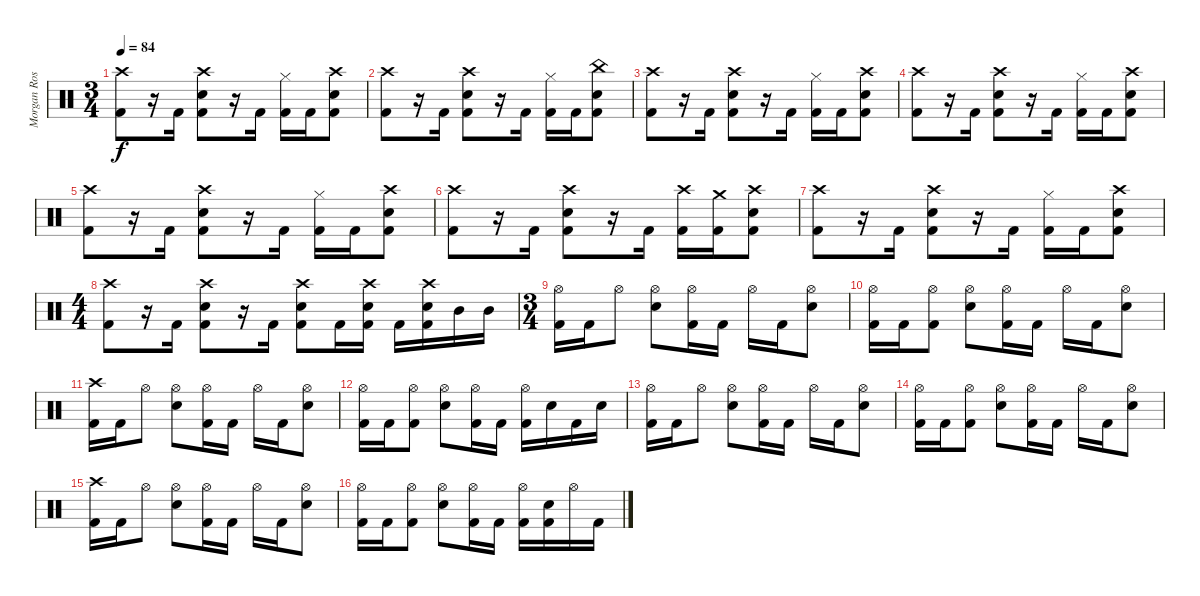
\track ("Morgan Rose - Drums" "Morgan Ros") {instrument percussion}
\staff {score}
\articulation defaults
\ts (3 4)
\tempo 84
\clef neutral
\ks c
("Crash high (hit)" "Kick (hit) 2").8{dy f} r.16 "Kick (hit) 2".16 ("Crash high (hit)" "Electric Snare (hit)" "Kick (hit) 2").8 r.16 "Kick (hit) 2".16 ("Hi-Hat (closed)" "Kick (hit) 2").16 "Kick (hit) 2".16 ("Crash high (hit)" "Electric Snare (hit)" "Kick (hit) 2").8 |
("Crash high (hit)" "Kick (hit) 2").8 r.16 "Kick (hit) 2".16 ("Crash high (hit)" "Electric Snare (hit)" "Kick (hit) 2").8 r.16 "Kick (hit) 2".16 ("Hi-Hat (closed)" "Kick (hit) 2").16 "Kick (hit) 2".16 ("China (hit)" "Electric Snare (hit)" "Kick (hit) 2").8 |
("Crash high (hit)" "Kick (hit) 2").8 r.16 "Kick (hit) 2".16 ("Crash high (hit)" "Electric Snare (hit)" "Kick (hit) 2").8 r.16 "Kick (hit) 2".16 ("Hi-Hat (closed)" "Kick (hit) 2").16 "Kick (hit) 2".16 ("Crash high (hit)" "Electric Snare (hit)" "Kick (hit) 2").8 |
("Crash high (hit)" "Kick (hit) 2").8 r.16 "Kick (hit) 2".16 ("Crash high (hit)" "Electric Snare (hit)" "Kick (hit) 2").8 r.16 "Kick (hit) 2".16 ("Hi-Hat (closed)" "Kick (hit) 2").16 "Kick (hit) 2".16 ("Crash high (hit)" "Electric Snare (hit)" "Kick (hit) 2").8 |
("Crash high (hit)" "Kick (hit) 2").8 r.16 "Kick (hit) 2".16 ("Crash high (hit)" "Electric Snare (hit)" "Kick (hit) 2").8 r.16 "Kick (hit) 2".16 ("Hi-Hat (closed)" "Kick (hit) 2").16 "Kick (hit) 2".16 ("Crash high (hit)" "Electric Snare (hit)" "Kick (hit) 2").8 |
("Crash high (hit)" "Kick (hit) 2").8 r.16 "Kick (hit) 2".16 ("Crash high (hit)" "Electric Snare (hit)" "Kick (hit) 2").8 r.16 "Kick (hit) 2".16 ("Crash high (hit)" "Kick (hit) 2").16 ("Crash medium (hit)" "Kick (hit) 2").16 ("Crash high (hit)" "Electric Snare (hit)" "Kick (hit) 2").8 |
("Crash high (hit)" "Kick (hit) 2").8 r.16 "Kick (hit) 2".16 ("Crash high (hit)" "Electric Snare (hit)" "Kick (hit) 2").8 r.16 "Kick (hit) 2".16 ("Hi-Hat (closed)" "Kick (hit) 2").16 "Kick (hit) 2".16 ("Crash high (hit)" "Electric Snare (hit)" "Kick (hit) 2").8 |
\ts (4 4)
("Crash high (hit)" "Kick (hit) 2").8 r.16 "Kick (hit) 2".16 ("Crash high (hit)" "Electric Snare (hit)" "Kick (hit) 2").8 r.16 "Kick (hit) 2".16 ("Crash high (hit)" "Electric Snare (hit)" "Kick (hit) 2").8 "Kick (hit) 2".16 ("Crash high (hit)" "Electric Snare (hit)" "Kick (hit) 2").16 "Kick (hit) 2".16 ("Crash high (hit)" "Electric Snare (hit)" "Kick (hit) 2").16 "Mid Tom (hit)".16 "Mid Tom (hit)".16 |
\ts (3 4)
("Hi-Hat (open)" "Kick (hit) 2").16 "Kick (hit) 2".16 "Hi-Hat (open)".8 ("Hi-Hat (open)" "Electric Snare (hit)").8 ("Hi-Hat (open)" "Kick (hit) 2").16 "Kick (hit) 2".16 "Hi-Hat (open)".16 "Kick (hit) 2".16 ("Hi-Hat (open)" "Electric Snare (hit)").8 |
("Hi-Hat (open)" "Kick (hit) 2").16 "Kick (hit) 2".16 ("Hi-Hat (open)" "Kick (hit) 2").8 ("Hi-Hat (open)" "Electric Snare (hit)").8 ("Hi-Hat (open)" "Kick (hit) 2").16 "Kick (hit) 2".16 "Hi-Hat (open)".16 "Kick (hit) 2".16 ("Hi-Hat (open)" "Electric Snare (hit)").8 |
("Crash high (hit)" "Kick (hit) 2").16 "Kick (hit) 2".16 "Hi-Hat (open)".8 ("Hi-Hat (open)" "Electric Snare (hit)").8 ("Hi-Hat (open)" "Kick (hit) 2").16 "Kick (hit) 2".16 "Hi-Hat (open)".16 "Kick (hit) 2".16 ("Hi-Hat (open)" "Electric Snare (hit)").8 |
("Hi-Hat (open)" "Kick (hit) 2").16 "Kick (hit) 2".16 ("Hi-Hat (open)" "Kick (hit) 2").8 ("Hi-Hat (open)" "Electric Snare (hit)").8 ("Hi-Hat (open)" "Kick (hit) 2").16 "Kick (hit) 2".16 ("Hi-Hat (open)" "Kick (hit) 2").16 "Electric Snare (hit)".16 "Kick (hit) 2".16 "Electric Snare (hit)".16 |
("Hi-Hat (open)" "Kick (hit) 2").16 "Kick (hit) 2".16 "Hi-Hat (open)".8 ("Hi-Hat (open)" "Electric Snare (hit)").8 ("Hi-Hat (open)" "Kick (hit) 2").16 "Kick (hit) 2".16 "Hi-Hat (open)".16 "Kick (hit) 2".16 ("Hi-Hat (open)" "Electric Snare (hit)").8 |
("Hi-Hat (open)" "Kick (hit) 2").16 "Kick (hit) 2".16 ("Hi-Hat (open)" "Kick (hit) 2").8 ("Hi-Hat (open)" "Electric Snare (hit)").8 ("Hi-Hat (open)" "Kick (hit) 2").16 "Kick (hit) 2".16 "Hi-Hat (open)".16 "Kick (hit) 2".16 ("Hi-Hat (open)" "Electric Snare (hit)").8 |
("Crash high (hit)" "Kick (hit) 2").16 "Kick (hit) 2".16 "Hi-Hat (open)".8 ("Hi-Hat (open)" "Electric Snare (hit)").8 ("Hi-Hat (open)" "Kick (hit) 2").16 "Kick (hit) 2".16 "Hi-Hat (open)".16 "Kick (hit) 2".16 ("Hi-Hat (open)" "Electric Snare (hit)").8 |
("Hi-Hat (open)" "Kick (hit) 2").16 "Kick (hit) 2".16 ("Hi-Hat (open)" "Kick (hit) 2").8 ("Hi-Hat (open)" "Electric Snare (hit)").8 ("Hi-Hat (open)" "Kick (hit) 2").16 "Kick (hit) 2".16 ("Hi-Hat (open)" "Kick (hit) 2").16 ("Electric Snare (hit)" "Kick (hit) 2").16 "Hi-Hat (open)".16 "Kick (hit) 2".16
